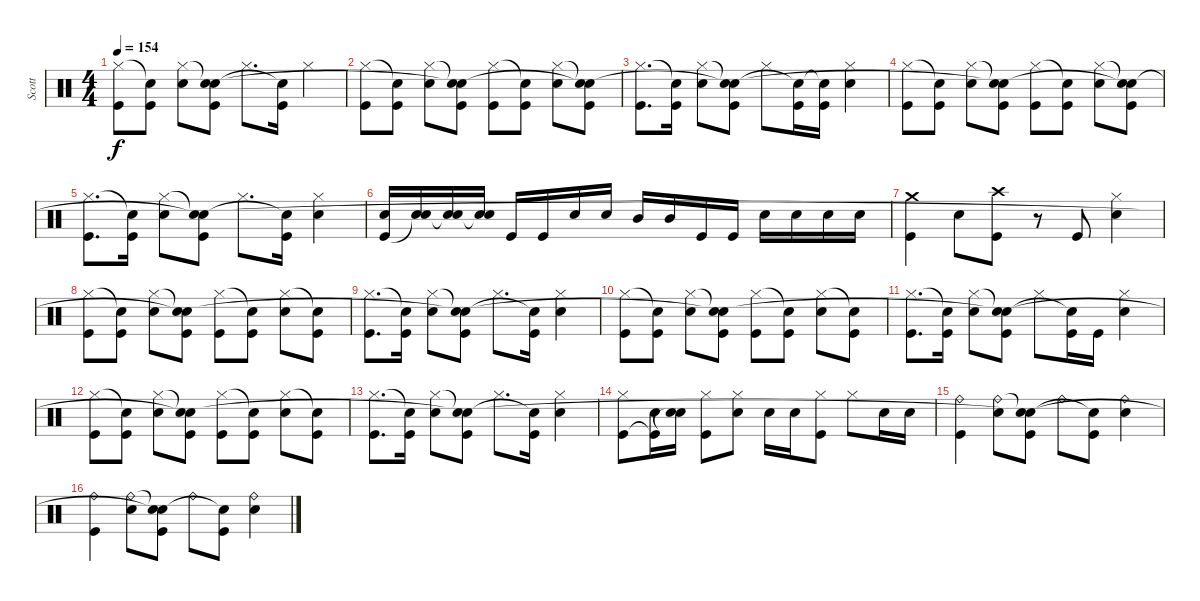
\track ("Scott" "Scott") {instrument percussion}
\staff {score}
\articulation defaults
\ts (4 4)
\tempo 154
\clef neutral
\ks c
("Kick (hit)" "Hi-Hat (closed)").8{dy f} ("Kick (hit)" "Snare (hit)"{t}).8 ("Snare (hit) 2" "Hi-Hat (closed)").8 ("Kick (hit)" "Snare (hit)"{t} "Snare (hit)"{t}).8 "Hi-Hat (closed)".8{d} ("Kick (hit)" "Snare (hit)"{t}).16 "Hi-Hat (closed)".4 |
("Kick (hit)" "Hi-Hat (closed)").8 ("Kick (hit)" "Snare (hit)"{t}).8 ("Snare (hit) 2" "Hi-Hat (closed)").8 ("Kick (hit)" "Snare (hit)"{t} "Snare (hit)"{t}).8 ("Kick (hit)" "Hi-Hat (closed)").8 ("Kick (hit)" "Snare (hit)"{t}).8 ("Snare (hit) 2" "Hi-Hat (closed)").8 ("Kick (hit)" "Snare (hit)"{t} "Snare (hit)"{t}).8 |
("Kick (hit)" "Hi-Hat (closed)").8{d} ("Kick (hit)" "Snare (hit)"{t}).16 ("Snare (hit) 2" "Hi-Hat (closed)").8 ("Kick (hit)" "Snare (hit)"{t} "Snare (hit)"{t}).8 "Hi-Hat (closed)".8 ("Kick (hit)" "Snare (hit)"{t}).16 ("Kick (hit)" "Snare (hit)"{t}).16 ("Snare (hit) 2" "Hi-Hat (closed)").4 |
("Kick (hit)" "Hi-Hat (closed)").8 ("Kick (hit)" "Snare (hit)"{t}).8 ("Snare (hit) 2" "Hi-Hat (closed)").8 ("Kick (hit)" "Snare (hit)"{t} "Snare (hit)"{t}).8 ("Kick (hit)" "Hi-Hat (closed)").8 ("Kick (hit)" "Snare (hit)"{t}).8 ("Snare (hit) 2" "Hi-Hat (closed)").8 ("Kick (hit)" "Snare (hit)"{t} "Snare (hit)"{t}).8 |
("Kick (hit)" "Hi-Hat (closed)").8{d} ("Kick (hit)" "Snare (hit)"{t}).16 ("Snare (hit) 2" "Hi-Hat (closed)").8 ("Kick (hit)" "Snare (hit)"{t} "Snare (hit)"{t}).8 "Hi-Hat (closed)".8{d} ("Kick (hit)" "Snare (hit)"{t}).16 ("Snare (hit) 2" "Hi-Hat (closed)").4 |
("Kick (hit)" "Snare (hit) 2").16 ("Snare (hit)"{t} "Snare (hit) 2").16 ("Snare (hit)"{t} "Snare (hit) 2").16 ("Snare (hit)"{t} "Snare (hit) 2").16 "Kick (hit)".16 "Kick (hit)".16 "Snare (hit) 2".16 "Snare (hit) 2".16 "Mid Tom (hit)".16 "Mid Tom (hit)".16 "Kick (hit)".16 "Kick (hit)".16 "Snare (hit) 2".16 "Snare (hit) 2".16 "Snare (hit) 2".16 "Snare (hit) 2".16 |
("Kick (hit)" "Crash medium (hit)").4 "Snare (hit) 2".8 ("Kick (hit)" "Crash high (hit)").8 r.8 "Kick (hit)".8 ("Snare (hit) 2" "Hi-Hat (closed)").4 |
("Kick (hit)" "Hi-Hat (closed)").8 ("Kick (hit)" "Snare (hit)"{t}).8 ("Snare (hit) 2" "Hi-Hat (closed)").8 ("Kick (hit)" "Snare (hit)"{t} "Snare (hit)"{t}).8 ("Kick (hit)" "Hi-Hat (closed)").8 ("Kick (hit)" "Snare (hit)"{t}).8 ("Snare (hit) 2" "Hi-Hat (closed)").8 ("Kick (hit)" "Snare (hit)"{t}).8 |
("Kick (hit)" "Hi-Hat (closed)").8{d} ("Kick (hit)" "Snare (hit)"{t}).16 ("Snare (hit) 2" "Hi-Hat (closed)").8 ("Kick (hit)" "Snare (hit)"{t} "Snare (hit)"{t}).8 "Hi-Hat (closed)".8{d} ("Kick (hit)" "Snare (hit)"{t}).16 ("Snare (hit) 2" "Hi-Hat (closed)").4 |
("Kick (hit)" "Hi-Hat (closed)").8 ("Kick (hit)" "Snare (hit)"{t}).8 ("Snare (hit) 2" "Hi-Hat (closed)").8 ("Kick (hit)" "Snare (hit)"{t} "Snare (hit)"{t}).8 ("Kick (hit)" "Hi-Hat (closed)").8 ("Kick (hit)" "Snare (hit)"{t}).8 ("Snare (hit) 2" "Hi-Hat (closed)").8 ("Kick (hit)" "Snare (hit)"{t}).8 |
("Kick (hit)" "Hi-Hat (closed)").8{d} ("Kick (hit)" "Snare (hit)"{t}).16 ("Snare (hit) 2" "Hi-Hat (closed)").8 ("Kick (hit)" "Snare (hit)"{t} "Snare (hit)"{t}).8 "Hi-Hat (closed)".8 ("Kick (hit)" "Snare (hit)"{t}).16 "Kick (hit)".16 ("Snare (hit) 2" "Hi-Hat (closed)").4 |
("Kick (hit)" "Hi-Hat (closed)").8 ("Kick (hit)" "Snare (hit)"{t}).8 ("Snare (hit) 2" "Hi-Hat (closed)").8 ("Kick (hit)" "Snare (hit)"{t} "Snare (hit)"{t}).8 ("Kick (hit)" "Hi-Hat (closed)").8 ("Kick (hit)" "Snare (hit)"{t}).8 ("Snare (hit) 2" "Hi-Hat (closed)").8 ("Kick (hit)" "Snare (hit)"{t}).8 |
("Kick (hit)" "Hi-Hat (closed)").8{d} ("Kick (hit)" "Snare (hit)"{t}).16 ("Snare (hit) 2" "Hi-Hat (closed)").8 ("Kick (hit)" "Snare (hit)"{t} "Snare (hit)"{t}).8 "Hi-Hat (closed)".8{d} ("Kick (hit)" "Snare (hit)"{t}).16 ("Snare (hit) 2" "Hi-Hat (closed)").4 |
("Kick (hit)" "Hi-Hat (closed)").8 ("Kick (hit)"{t} "Snare (hit) 2").16 ("Snare (hit)"{t} "Snare (hit) 2").16 ("Kick (hit)" "Hi-Hat (closed)").8 ("Snare (hit) 2" "Hi-Hat (closed)").8 "Snare (hit) 2".16 "Snare (hit) 2".16 ("Kick (hit)" "Hi-Hat (closed)").8 "Hi-Hat (closed)".8 "Snare (hit) 2".16 "Snare (hit) 2".16 |
("Kick (hit)" "Ride (bell)").4 ("Snare (hit) 2" "Ride (bell)").8 ("Kick (hit)" "Snare (hit)"{t} "Snare (hit)"{t}).8 "Ride (bell)".8 ("Kick (hit)" "Snare (hit)"{t}).8 ("Snare (hit) 2" "Ride (bell)").4 |
("Kick (hit)" "Ride (bell)").4 ("Snare (hit) 2" "Ride (bell)").8 ("Kick (hit)" "Snare (hit)"{t} "Snare (hit)"{t}).8 "Ride (bell)".8 ("Kick (hit)" "Snare (hit)"{t}).8 ("Snare (hit) 2" "Ride (bell)").4
